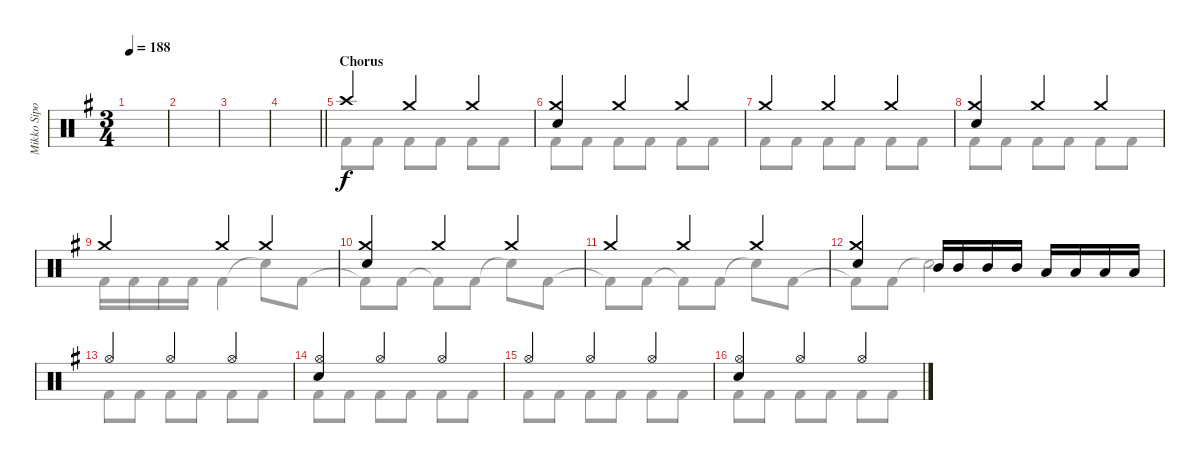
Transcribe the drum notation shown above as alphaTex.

\track ("Mikko Sipola (drums)" "Mikko Sipo") {instrument percussion}
\staff {score}
\articulation defaults
\voice
\ts (3 4)
\tempo 188
\clef neutral
\ks eminor
|
|
|
\barLineRight lightlight
|
\section ("" "Chorus")
"Crash high (hit)".4 "Crash medium (hit)".4 "Crash medium (hit)".4 |
("Crash medium (hit)" "Electric Snare (hit)").4 "Crash medium (hit)".4 "Crash medium (hit)".4 |
"Crash medium (hit)".4 "Crash medium (hit)".4 "Crash medium (hit)".4 |
("Crash medium (hit)" "Electric Snare (hit)").4 "Crash medium (hit)".4 "Crash medium (hit)".4 |
"Crash medium (hit)".4 "Crash medium (hit)".4 "Crash medium (hit)".4 |
("Crash medium (hit)" "Electric Snare (hit)").4 "Crash medium (hit)".4 "Crash medium (hit)".4 |
"Crash medium (hit)".4 "Crash medium (hit)".4 "Crash medium (hit)".4 |
("Crash medium (hit)" "Electric Snare (hit)").4 "Mid Tom (hit)".16 "Mid Tom (hit)".16 "Mid Tom (hit)".16 "Mid Tom (hit)".16 "Low Tom (hit)".16 "Low Tom (hit)".16 "Low Tom (hit)".16 "Low Tom (hit)".16 |
"Hi-Hat (open)".4 "Hi-Hat (open)".4 "Hi-Hat (open)".4 |
("Hi-Hat (open)" "Electric Snare (hit)").4 "Hi-Hat (open)".4 "Hi-Hat (open)".4 |
"Hi-Hat (open)".4 "Hi-Hat (open)".4 "Hi-Hat (open)".4 |
("Hi-Hat (open)" "Electric Snare (hit)").4 "Hi-Hat (open)".4 "Hi-Hat (open)".4
\voice
\clef neutral
\ottava regular
\simile none
\ks eminor
|
|
|
\barLineRight lightlight
|
"Kick (hit) 2".8 "Kick (hit) 2".8 "Kick (hit) 2".8 "Kick (hit) 2".8 "Kick (hit) 2".8 "Kick (hit) 2".8 |
"Kick (hit) 2".8 "Kick (hit) 2".8 "Kick (hit) 2".8 "Kick (hit) 2".8 "Kick (hit) 2".8 "Kick (hit) 2".8 |
"Kick (hit) 2".8 "Kick (hit) 2".8 "Kick (hit) 2".8 "Kick (hit) 2".8 "Kick (hit) 2".8 "Kick (hit) 2".8 |
"Kick (hit) 2".8 "Kick (hit) 2".8 "Kick (hit) 2".8 "Kick (hit) 2".8 "Kick (hit) 2".8 "Kick (hit) 2".8 |
"Kick (hit) 2".16 "Kick (hit) 2".16 "Kick (hit) 2".16 "Kick (hit) 2".16 "Kick (hit) 2".4 "Snare (hit)"{t}.8 "Kick (hit) 2".8 |
"Kick (hit) 2"{t}.8 "Kick (hit) 2".8 "Kick (hit) 2"{t}.8 "Kick (hit) 2".8 "Snare (hit)"{t}.8 "Kick (hit) 2".8 |
"Kick (hit) 2"{t}.8 "Kick (hit) 2".8 "Kick (hit) 2"{t}.8 "Kick (hit) 2".8 "Snare (hit)"{t}.8 "Kick (hit) 2".8 |
"Kick (hit) 2"{t}.8 "Kick (hit) 2".8 "Snare (hit)"{t}.2 |
"Kick (hit) 2".8 "Kick (hit) 2".8 "Kick (hit) 2".8 "Kick (hit) 2".8 "Kick (hit) 2".8 "Kick (hit) 2".8 |
"Kick (hit) 2".8 "Kick (hit) 2".8 "Kick (hit) 2".8 "Kick (hit) 2".8 "Kick (hit) 2".8 "Kick (hit) 2".8 |
"Kick (hit) 2".8 "Kick (hit) 2".8 "Kick (hit) 2".8 "Kick (hit) 2".8 "Kick (hit) 2".8 "Kick (hit) 2".8 |
"Kick (hit) 2".8 "Kick (hit) 2".8 "Kick (hit) 2".8 "Kick (hit) 2".8 "Kick (hit) 2".8 "Kick (hit) 2".8
